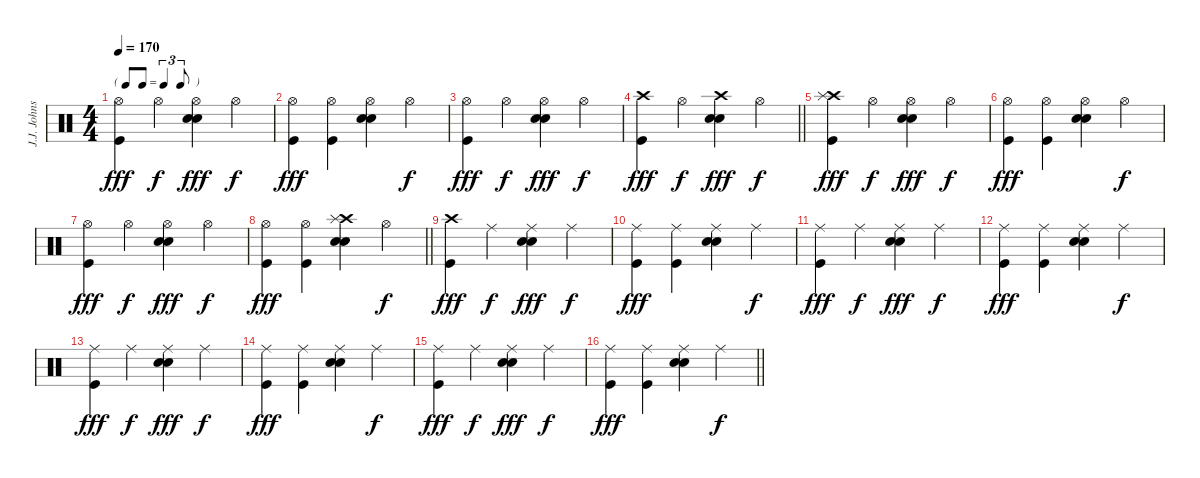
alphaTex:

\track ("J.J. Johnson" "J.J. Johns") {instrument percussion}
\staff {score}
\articulation defaults
\ts (4 4)
\tf triplet8th
\tempo 170
\clef neutral
\ks c
("Hi-Hat (open)" "Kick (hit)").4{dy fff} "Hi-Hat (open)".4{dy f} ("Hi-Hat (open)" "Electric Snare (hit)" "Snare (hit) 2").4{dy fff} "Hi-Hat (open)".4{dy f} |
("Hi-Hat (open)" "Kick (hit)").4{dy fff} ("Hi-Hat (open)" "Kick (hit)").4 ("Hi-Hat (open)" "Snare (hit) 2" "Electric Snare (hit)").4 "Hi-Hat (open)".4{dy f} |
("Hi-Hat (open)" "Kick (hit)").4{dy fff} "Hi-Hat (open)".4{dy f} ("Hi-Hat (open)" "Electric Snare (hit)" "Snare (hit) 2").4{dy fff} "Hi-Hat (open)".4{dy f} |
\barLineRight lightlight
("Crash high (hit)" "Kick (hit)").4{dy fff} "Hi-Hat (open)".4{dy f} ("Crash high (hit)" "Electric Snare (hit)" "Snare (hit) 2").4{dy fff} "Hi-Hat (open)".4{dy f} |
("Crash high (hit)" "Splash (hit)" "Kick (hit)").4{dy fff} "Hi-Hat (open)".4{dy f} ("Hi-Hat (open)" "Electric Snare (hit)" "Snare (hit) 2").4{dy fff} "Hi-Hat (open)".4{dy f} |
("Hi-Hat (open)" "Kick (hit)").4{dy fff} ("Hi-Hat (open)" "Kick (hit)").4 ("Hi-Hat (open)" "Snare (hit) 2" "Electric Snare (hit)").4 "Hi-Hat (open)".4{dy f} |
("Hi-Hat (open)" "Kick (hit)").4{dy fff} "Hi-Hat (open)".4{dy f} ("Hi-Hat (open)" "Electric Snare (hit)" "Snare (hit) 2").4{dy fff} "Hi-Hat (open)".4{dy f} |
\barLineRight lightlight
("Hi-Hat (open)" "Kick (hit)").4{dy fff} ("Hi-Hat (open)" "Kick (hit)").4 ("Crash high (hit)" "Splash (hit)" "Snare (hit) 2" "Electric Snare (hit)").4 "Hi-Hat (open)".4{dy f} |
("Crash high (hit)" "Kick (hit)").4{dy fff} "Ride (middle)".4{dy f} ("Ride (middle)" "Electric Snare (hit)" "Snare (hit) 2").4{dy fff} "Ride (middle)".4{dy f} |
("Ride (middle)" "Kick (hit)").4{dy fff} ("Ride (middle)" "Kick (hit)").4 ("Ride (middle)" "Snare (hit) 2" "Electric Snare (hit)").4 "Ride (middle)".4{dy f} |
("Ride (middle)" "Kick (hit)").4{dy fff} "Ride (middle)".4{dy f} ("Ride (middle)" "Electric Snare (hit)" "Snare (hit) 2").4{dy fff} "Ride (middle)".4{dy f} |
("Ride (middle)" "Kick (hit)").4{dy fff} ("Ride (middle)" "Kick (hit)").4 ("Ride (middle)" "Snare (hit) 2" "Electric Snare (hit)").4 "Ride (middle)".4{dy f} |
("Ride (middle)" "Kick (hit)").4{dy fff} "Ride (middle)".4{dy f} ("Ride (middle)" "Electric Snare (hit)" "Snare (hit) 2").4{dy fff} "Ride (middle)".4{dy f} |
("Ride (middle)" "Kick (hit)").4{dy fff} ("Ride (middle)" "Kick (hit)").4 ("Ride (middle)" "Snare (hit) 2" "Electric Snare (hit)").4 "Ride (middle)".4{dy f} |
("Ride (middle)" "Kick (hit)").4{dy fff} "Ride (middle)".4{dy f} ("Ride (middle)" "Electric Snare (hit)" "Snare (hit) 2").4{dy fff} "Ride (middle)".4{dy f} |
\barLineRight lightlight
("Ride (middle)" "Kick (hit)").4{dy fff} ("Ride (middle)" "Kick (hit)").4 ("Ride (middle)" "Snare (hit) 2" "Electric Snare (hit)").4 "Ride (middle)".4{dy f}
